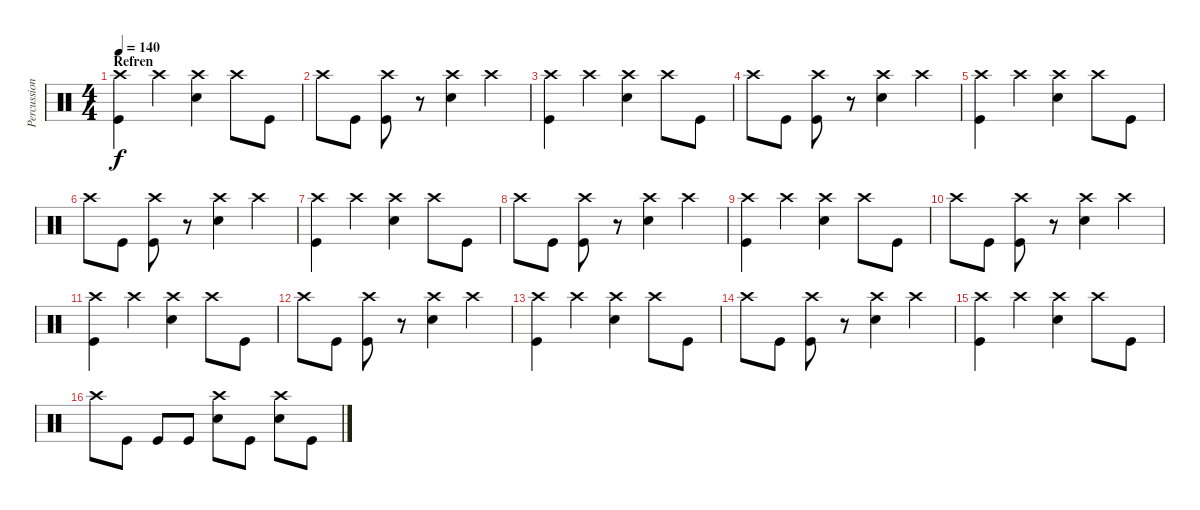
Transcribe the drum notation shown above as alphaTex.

\track ("Percussion" "Percussion") {instrument percussion}
\staff {score}
\articulation defaults
\ts (4 4)
\section ("" "Refren")
\tempo 140
\clef neutral
\ks c
("Kick (hit)" "Crash high (hit)").4{dy f} "Crash high (hit)".4 ("Snare (hit) 2" "Crash high (hit)").4 "Crash high (hit)".8 "Kick (hit)".8 |
"Crash high (hit)".8 "Kick (hit)".8 ("Kick (hit)" "Crash high (hit)").8 r.8 ("Snare (hit) 2" "Crash high (hit)").4 "Crash high (hit)".4 |
("Kick (hit)" "Crash high (hit)").4 "Crash high (hit)".4 ("Snare (hit) 2" "Crash high (hit)").4 "Crash high (hit)".8 "Kick (hit)".8 |
"Crash high (hit)".8 "Kick (hit)".8 ("Kick (hit)" "Crash high (hit)").8 r.8 ("Snare (hit) 2" "Crash high (hit)").4 "Crash high (hit)".4 |
("Kick (hit)" "Crash high (hit)").4 "Crash high (hit)".4 ("Snare (hit) 2" "Crash high (hit)").4 "Crash high (hit)".8 "Kick (hit)".8 |
"Crash high (hit)".8 "Kick (hit)".8 ("Kick (hit)" "Crash high (hit)").8 r.8 ("Snare (hit) 2" "Crash high (hit)").4 "Crash high (hit)".4 |
("Kick (hit)" "Crash high (hit)").4 "Crash high (hit)".4 ("Snare (hit) 2" "Crash high (hit)").4 "Crash high (hit)".8 "Kick (hit)".8 |
"Crash high (hit)".8 "Kick (hit)".8 ("Kick (hit)" "Crash high (hit)").8 r.8 ("Snare (hit) 2" "Crash high (hit)").4 "Crash high (hit)".4 |
("Kick (hit)" "Crash high (hit)").4 "Crash high (hit)".4 ("Snare (hit) 2" "Crash high (hit)").4 "Crash high (hit)".8 "Kick (hit)".8 |
"Crash high (hit)".8 "Kick (hit)".8 ("Kick (hit)" "Crash high (hit)").8 r.8 ("Snare (hit) 2" "Crash high (hit)").4 "Crash high (hit)".4 |
("Kick (hit)" "Crash high (hit)").4 "Crash high (hit)".4 ("Snare (hit) 2" "Crash high (hit)").4 "Crash high (hit)".8 "Kick (hit)".8 |
"Crash high (hit)".8 "Kick (hit)".8 ("Kick (hit)" "Crash high (hit)").8 r.8 ("Snare (hit) 2" "Crash high (hit)").4 "Crash high (hit)".4 |
("Kick (hit)" "Crash high (hit)").4 "Crash high (hit)".4 ("Snare (hit) 2" "Crash high (hit)").4 "Crash high (hit)".8 "Kick (hit)".8 |
"Crash high (hit)".8 "Kick (hit)".8 ("Kick (hit)" "Crash high (hit)").8 r.8 ("Snare (hit) 2" "Crash high (hit)").4 "Crash high (hit)".4 |
("Kick (hit)" "Crash high (hit)").4 "Crash high (hit)".4 ("Snare (hit) 2" "Crash high (hit)").4 "Crash high (hit)".8 "Kick (hit)".8 |
"Crash high (hit)".8 "Kick (hit)".8 "Kick (hit)".8 "Kick (hit)".8 ("Snare (hit) 2" "Crash high (hit)").8 "Kick (hit)".8 ("Snare (hit) 2" "Crash high (hit)").8 "Kick (hit)".8
